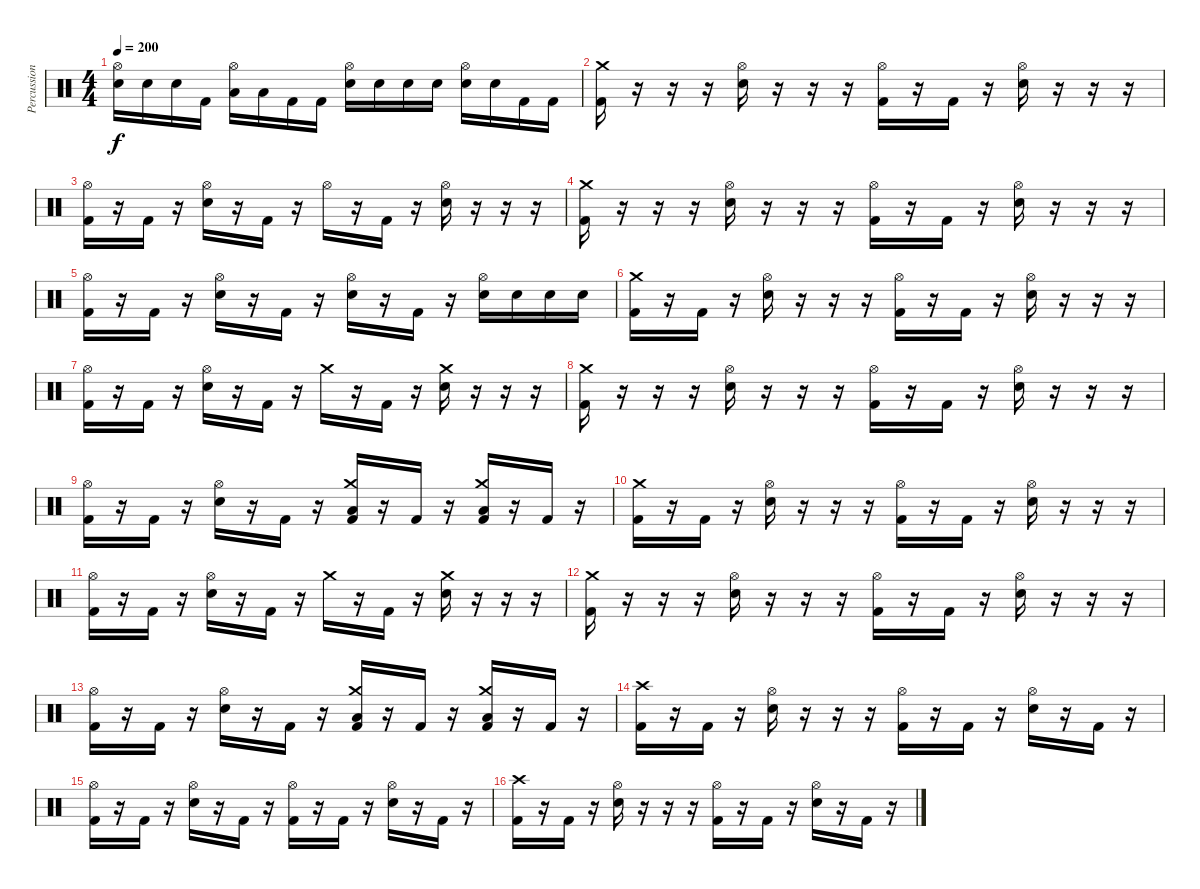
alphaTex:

\track ("Percussion" "Percussion") {instrument percussion}
\staff {score}
\articulation defaults
\ts (4 4)
\tempo 200
\clef neutral
\ks c
("Hi-Hat (open)" "Snare (hit) 2").16{dy f} "Snare (hit) 2".16 "Snare (hit) 2".16 "Kick (hit) 2".16 ("Hi-Hat (open)" "Low Tom (hit)").16 "Low Tom (hit)".16 "Kick (hit) 2".16 "Kick (hit) 2".16 ("Hi-Hat (open)" "Snare (hit) 2").16 "Snare (hit) 2".16 "Snare (hit) 2".16 "Snare (hit) 2".16 ("Hi-Hat (open)" "Snare (hit) 2").16 "Snare (hit) 2".16 "Kick (hit) 2".16 "Kick (hit) 2".16 |
("Crash medium (hit)" "Kick (hit) 2").16 r.16 r.16 r.16 ("Hi-Hat (open)" "Snare (hit) 2").16 r.16 r.16 r.16 ("Hi-Hat (open)" "Kick (hit) 2").16 r.16 "Kick (hit) 2".16 r.16 ("Hi-Hat (open)" "Snare (hit) 2").16 r.16 r.16 r.16 |
("Hi-Hat (open)" "Kick (hit) 2").16 r.16 "Kick (hit) 2".16 r.16 ("Hi-Hat (open)" "Snare (hit) 2").16 r.16 "Kick (hit) 2".16 r.16 "Hi-Hat (open)".16 r.16 "Kick (hit) 2".16 r.16 ("Hi-Hat (open)" "Snare (hit) 2").16 r.16 r.16 r.16 |
("Crash medium (hit)" "Kick (hit) 2").16 r.16 r.16 r.16 ("Hi-Hat (open)" "Snare (hit) 2").16 r.16 r.16 r.16 ("Hi-Hat (open)" "Kick (hit) 2").16 r.16 "Kick (hit) 2".16 r.16 ("Hi-Hat (open)" "Snare (hit) 2").16 r.16 r.16 r.16 |
("Hi-Hat (open)" "Kick (hit) 2").16 r.16 "Kick (hit) 2".16 r.16 ("Hi-Hat (open)" "Snare (hit) 2").16 r.16 "Kick (hit) 2".16 r.16 ("Hi-Hat (open)" "Snare (hit) 2").16 r.16 "Kick (hit) 2".16 r.16 ("Hi-Hat (open)" "Snare (hit) 2").16 "Snare (hit) 2".16 "Snare (hit) 2".16 "Snare (hit) 2".16 |
("Crash medium (hit)" "Kick (hit) 2").16 r.16 "Kick (hit) 2".16 r.16 ("Hi-Hat (open)" "Snare (hit) 2").16 r.16 r.16 r.16 ("Hi-Hat (open)" "Kick (hit) 2").16 r.16 "Kick (hit) 2".16 r.16 ("Hi-Hat (open)" "Snare (hit) 2").16 r.16 r.16 r.16 |
("Hi-Hat (open)" "Kick (hit) 2").16 r.16 "Kick (hit) 2".16 r.16 ("Hi-Hat (open)" "Snare (hit) 2").16 r.16 "Kick (hit) 2".16 r.16 "Crash medium (hit)".16 r.16 "Kick (hit) 2".16 r.16 ("Crash medium (hit)" "Snare (hit) 2").16 r.16 r.16 r.16 |
("Crash medium (hit)" "Kick (hit) 2").16 r.16 r.16 r.16 ("Hi-Hat (open)" "Snare (hit) 2").16 r.16 r.16 r.16 ("Hi-Hat (open)" "Kick (hit) 2").16 r.16 "Kick (hit) 2".16 r.16 ("Hi-Hat (open)" "Snare (hit) 2").16 r.16 r.16 r.16 |
("Hi-Hat (open)" "Kick (hit) 2").16 r.16 "Kick (hit) 2".16 r.16 ("Hi-Hat (open)" "Snare (hit) 2").16 r.16 "Kick (hit) 2".16 r.16 ("Crash medium (hit)" "Low Floor Tom (hit)" "Kick (hit) 2").16 r.16 "Kick (hit) 2".16 r.16 ("Crash medium (hit)" "Low Floor Tom (hit)" "Kick (hit) 2").16 r.16 "Kick (hit) 2".16 r.16 |
("Crash medium (hit)" "Kick (hit) 2").16 r.16 "Kick (hit) 2".16 r.16 ("Hi-Hat (open)" "Snare (hit) 2").16 r.16 r.16 r.16 ("Hi-Hat (open)" "Kick (hit) 2").16 r.16 "Kick (hit) 2".16 r.16 ("Hi-Hat (open)" "Snare (hit) 2").16 r.16 r.16 r.16 |
("Hi-Hat (open)" "Kick (hit) 2").16 r.16 "Kick (hit) 2".16 r.16 ("Hi-Hat (open)" "Snare (hit) 2").16 r.16 "Kick (hit) 2".16 r.16 "Crash medium (hit)".16 r.16 "Kick (hit) 2".16 r.16 ("Crash medium (hit)" "Snare (hit) 2").16 r.16 r.16 r.16 |
("Crash medium (hit)" "Kick (hit) 2").16 r.16 r.16 r.16 ("Hi-Hat (open)" "Snare (hit) 2").16 r.16 r.16 r.16 ("Hi-Hat (open)" "Kick (hit) 2").16 r.16 "Kick (hit) 2".16 r.16 ("Hi-Hat (open)" "Snare (hit) 2").16 r.16 r.16 r.16 |
("Hi-Hat (open)" "Kick (hit) 2").16 r.16 "Kick (hit) 2".16 r.16 ("Hi-Hat (open)" "Snare (hit) 2").16 r.16 "Kick (hit) 2".16 r.16 ("Crash medium (hit)" "Low Floor Tom (hit)" "Kick (hit) 2").16 r.16 "Kick (hit) 2".16 r.16 ("Crash medium (hit)" "Low Floor Tom (hit)" "Kick (hit) 2").16 r.16 "Kick (hit) 2".16 r.16 |
("Crash high (hit)" "Kick (hit) 2").16 r.16 "Kick (hit) 2".16 r.16 ("Hi-Hat (open)" "Snare (hit) 2").16 r.16 r.16 r.16 ("Hi-Hat (open)" "Kick (hit) 2").16 r.16 "Kick (hit) 2".16 r.16 ("Hi-Hat (open)" "Snare (hit) 2").16 r.16 "Kick (hit) 2".16 r.16 |
("Hi-Hat (open)" "Kick (hit) 2").16 r.16 "Kick (hit) 2".16 r.16 ("Hi-Hat (open)" "Snare (hit) 2").16 r.16 "Kick (hit) 2".16 r.16 ("Hi-Hat (open)" "Kick (hit) 2").16 r.16 "Kick (hit) 2".16 r.16 ("Hi-Hat (open)" "Snare (hit) 2").16 r.16 "Kick (hit) 2".16 r.16 |
("Crash high (hit)" "Kick (hit) 2").16 r.16 "Kick (hit) 2".16 r.16 ("Hi-Hat (open)" "Snare (hit) 2").16 r.16 r.16 r.16 ("Hi-Hat (open)" "Kick (hit) 2").16 r.16 "Kick (hit) 2".16 r.16 ("Hi-Hat (open)" "Snare (hit) 2").16 r.16 "Kick (hit) 2".16 r.16
